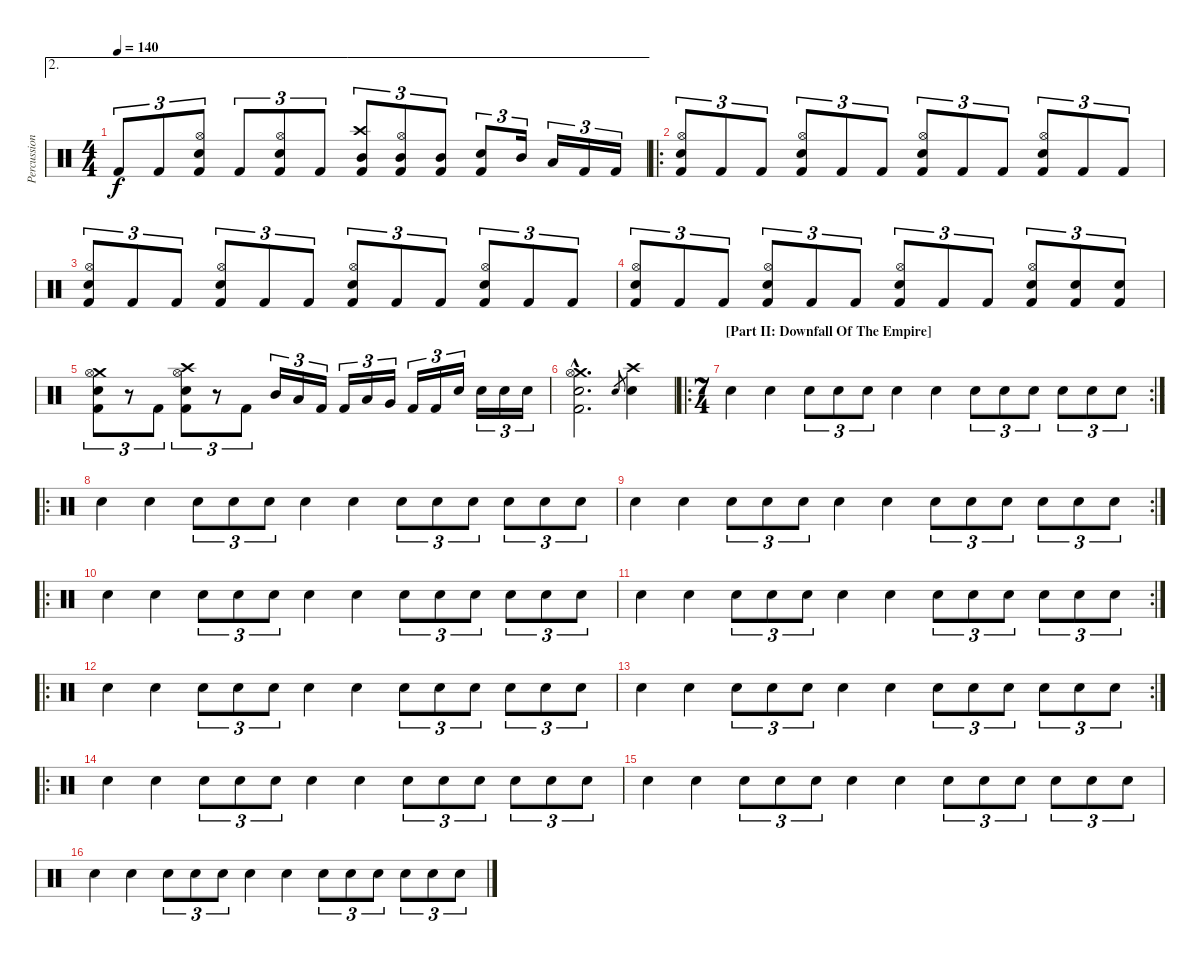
\track ("Percussion" "Percussion") {instrument percussion}
\staff {score}
\articulation defaults
\ae 2
\ts (4 4)
\tempo 140
\clef neutral
\ks c "Kick (hit) 2".8{tu (3 2) dy f} "Kick (hit) 2".8{tu (3 2)}
("Hi-Hat (open)" "Electric Snare (hit)" "Kick (hit) 2").8{tu (3 2)} "Kick (hit) 2".8{tu (3 2)} ("Hi-Hat (open)" "Electric Snare (hit)" "Kick (hit) 2").8{tu (3 2)} "Kick (hit) 2".8{tu (3 2)} ("Crash high (hit)" "Mid Tom (hit)" "Kick (hit) 2").8{tu (3 2)} ("Hi-Hat (open)" "Mid Tom (hit)" "Kick (hit) 2").8{tu (3 2)} ("Mid Tom (hit)" "Kick (hit) 2").8{tu (3 2)} ("Electric Snare (hit)" "Kick (hit) 2").8{tu (3 2)} "Mid Tom (hit)".16{tu (3 2)} "Low Tom (hit)".16{tu (3 2)} "Kick (hit) 2".16{tu (3 2)} "Kick (hit) 2".16{tu (3 2)} |
\ro
("Hi-Hat (open)" "Electric Snare (hit)" "Kick (hit) 2").8{tu (3 2)} "Kick (hit) 2".8{tu (3 2)} "Kick (hit) 2".8{tu (3 2)} ("Hi-Hat (open)" "Electric Snare (hit)" "Kick (hit) 2").8{tu (3 2)} "Kick (hit) 2".8{tu (3 2)} "Kick (hit) 2".8{tu (3 2)} ("Hi-Hat (open)" "Electric Snare (hit)" "Kick (hit) 2").8{tu (3 2)} "Kick (hit) 2".8{tu (3 2)} "Kick (hit) 2".8{tu (3 2)} ("Hi-Hat (open)" "Electric Snare (hit)" "Kick (hit) 2").8{tu (3 2)} "Kick (hit) 2".8{tu (3 2)} "Kick (hit) 2".8{tu (3 2)} |
("Hi-Hat (open)" "Electric Snare (hit)" "Kick (hit) 2").8{tu (3 2)} "Kick (hit) 2".8{tu (3 2)} "Kick (hit) 2".8{tu (3 2)} ("Hi-Hat (open)" "Electric Snare (hit)" "Kick (hit) 2").8{tu (3 2)} "Kick (hit) 2".8{tu (3 2)} "Kick (hit) 2".8{tu (3 2)} ("Hi-Hat (open)" "Electric Snare (hit)" "Kick (hit) 2").8{tu (3 2)} "Kick (hit) 2".8{tu (3 2)} "Kick (hit) 2".8{tu (3 2)} ("Hi-Hat (open)" "Electric Snare (hit)" "Kick (hit) 2").8{tu (3 2)} "Kick (hit) 2".8{tu (3 2)} "Kick (hit) 2".8{tu (3 2)} |
("Hi-Hat (open)" "Electric Snare (hit)" "Kick (hit) 2").8{tu (3 2)} "Kick (hit) 2".8{tu (3 2)} "Kick (hit) 2".8{tu (3 2)} ("Hi-Hat (open)" "Electric Snare (hit)" "Kick (hit) 2").8{tu (3 2)} "Kick (hit) 2".8{tu (3 2)} "Kick (hit) 2".8{tu (3 2)} ("Hi-Hat (open)" "Electric Snare (hit)" "Kick (hit) 2").8{tu (3 2)} "Kick (hit) 2".8{tu (3 2)} "Kick (hit) 2".8{tu (3 2)} ("Hi-Hat (open)" "Electric Snare (hit)" "Kick (hit) 2").8{tu (3 2)} ("Electric Snare (hit)" "Kick (hit) 2").8{tu (3 2)} ("Electric Snare (hit)" "Kick (hit) 2").8{tu (3 2)} |
("Crash medium (hit)" "Hi-Hat (open)" "Electric Snare (hit)" "Kick (hit) 2").8{tu (3 2)} r.8{tu (3 2)} "Kick (hit) 2".8{tu (3 2)} ("Crash high (hit)" "Hi-Hat (open)" "Electric Snare (hit)" "Kick (hit) 2").8{tu (3 2)} r.8{tu (3 2)} "Kick (hit) 2".8{tu (3 2)} "Mid Tom (hit)".16{tu (3 2)} "Low Tom (hit)".16{tu (3 2)} "Kick (hit) 2".16{tu (3 2)} "Kick (hit) 2".16{tu (3 2)} "Low Tom (hit)".16{tu (3 2)} "Very Low Tom (hit)".16{tu (3 2)} "Kick (hit) 2".16{tu (3 2)} "Kick (hit) 2".16{tu (3 2)} "Electric Snare (hit)".16{tu (3 2)} "Electric Snare (hit)".16{tu (3 2)} "Electric Snare (hit)".16{tu (3 2)} "Electric Snare (hit)".16{tu (3 2)} |
("Crash medium (hit)"{hac} "Hi-Hat (open)"{hac} "Electric Snare (hit)"{hac} "Kick (hit) 2"{hac}).2{d} "Electric Snare (hit)".8{gr} ("Crash high (hit)" "Electric Snare (hit)").4 |
\ro
\rc 2
\ts (7 4)
\section ("" "[Part II: Downfall Of The Empire]")
"Electric Snare (hit)".4 "Electric Snare (hit)".4 "Electric Snare (hit)".8{tu (3 2)} "Electric Snare (hit)".8{tu (3 2)} "Electric Snare (hit)".8{tu (3 2)} "Electric Snare (hit)".4 "Electric Snare (hit)".4 "Electric Snare (hit)".8{tu (3 2)} "Electric Snare (hit)".8{tu (3 2)} "Electric Snare (hit)".8{tu (3 2)} "Electric Snare (hit)".8{tu (3 2)} "Electric Snare (hit)".8{tu (3 2)} "Electric Snare (hit)".8{tu (3 2)} |
\ro "Electric Snare (hit)".4 "Electric Snare (hit)".4 "Electric Snare (hit)".8{tu (3 2)} "Electric Snare (hit)".8{tu (3 2)} "Electric Snare (hit)".8{tu (3 2)} "Electric Snare (hit)".4 "Electric Snare (hit)".4 "Electric Snare (hit)".8{tu (3 2)} "Electric Snare (hit)".8{tu (3 2)} "Electric Snare (hit)".8{tu (3 2)} "Electric Snare (hit)".8{tu (3 2)} "Electric Snare (hit)".8{tu (3 2)} "Electric Snare (hit)".8{tu (3 2)}
|
\rc 2 "Electric Snare (hit)".4 "Electric Snare (hit)".4 "Electric Snare (hit)".8{tu (3 2)} "Electric Snare (hit)".8{tu (3 2)} "Electric Snare (hit)".8{tu (3 2)} "Electric Snare (hit)".4 "Electric Snare (hit)".4 "Electric Snare (hit)".8{tu (3 2)} "Electric Snare (hit)".8{tu (3 2)} "Electric Snare (hit)".8{tu (3 2)} "Electric Snare (hit)".8{tu (3 2)} "Electric Snare (hit)".8{tu (3 2)} "Electric Snare (hit)".8{tu (3 2)}
|
\ro "Electric Snare (hit)".4 "Electric Snare (hit)".4 "Electric Snare (hit)".8{tu (3 2)} "Electric Snare (hit)".8{tu (3 2)} "Electric Snare (hit)".8{tu (3 2)} "Electric Snare (hit)".4 "Electric Snare (hit)".4 "Electric Snare (hit)".8{tu (3 2)} "Electric Snare (hit)".8{tu (3 2)} "Electric Snare (hit)".8{tu (3 2)} "Electric Snare (hit)".8{tu (3 2)} "Electric Snare (hit)".8{tu (3 2)} "Electric Snare (hit)".8{tu (3 2)}
|
\rc 2 "Electric Snare (hit)".4 "Electric Snare (hit)".4 "Electric Snare (hit)".8{tu (3 2)} "Electric Snare (hit)".8{tu (3 2)} "Electric Snare (hit)".8{tu (3 2)} "Electric Snare (hit)".4 "Electric Snare (hit)".4 "Electric Snare (hit)".8{tu (3 2)} "Electric Snare (hit)".8{tu (3 2)} "Electric Snare (hit)".8{tu (3 2)} "Electric Snare (hit)".8{tu (3 2)} "Electric Snare (hit)".8{tu (3 2)} "Electric Snare (hit)".8{tu (3 2)}
|
\ro "Electric Snare (hit)".4 "Electric Snare (hit)".4 "Electric Snare (hit)".8{tu (3 2)} "Electric Snare (hit)".8{tu (3 2)} "Electric Snare (hit)".8{tu (3 2)} "Electric Snare (hit)".4 "Electric Snare (hit)".4 "Electric Snare (hit)".8{tu (3 2)} "Electric Snare (hit)".8{tu (3 2)} "Electric Snare (hit)".8{tu (3 2)} "Electric Snare (hit)".8{tu (3 2)} "Electric Snare (hit)".8{tu (3 2)} "Electric Snare (hit)".8{tu (3 2)}
|
\rc 2 "Electric Snare (hit)".4 "Electric Snare (hit)".4 "Electric Snare (hit)".8{tu (3 2)} "Electric Snare (hit)".8{tu (3 2)} "Electric Snare (hit)".8{tu (3 2)} "Electric Snare (hit)".4 "Electric Snare (hit)".4 "Electric Snare (hit)".8{tu (3 2)} "Electric Snare (hit)".8{tu (3 2)} "Electric Snare (hit)".8{tu (3 2)} "Electric Snare (hit)".8{tu (3 2)} "Electric Snare (hit)".8{tu (3 2)} "Electric Snare (hit)".8{tu (3 2)}
|
\ro "Electric Snare (hit)".4 "Electric Snare (hit)".4 "Electric Snare (hit)".8{tu (3 2)} "Electric Snare (hit)".8{tu (3 2)} "Electric Snare (hit)".8{tu (3 2)} "Electric Snare (hit)".4 "Electric Snare (hit)".4 "Electric Snare (hit)".8{tu (3 2)} "Electric Snare (hit)".8{tu (3 2)} "Electric Snare (hit)".8{tu (3 2)} "Electric Snare (hit)".8{tu (3 2)} "Electric Snare (hit)".8{tu (3 2)} "Electric Snare (hit)".8{tu (3 2)}
|
"Electric Snare (hit)".4 "Electric Snare (hit)".4 "Electric Snare (hit)".8{tu (3 2)} "Electric Snare (hit)".8{tu (3 2)} "Electric Snare (hit)".8{tu (3 2)} "Electric Snare (hit)".4 "Electric Snare (hit)".4 "Electric Snare (hit)".8{tu (3 2)} "Electric Snare (hit)".8{tu (3 2)} "Electric Snare (hit)".8{tu (3 2)} "Electric Snare (hit)".8{tu (3 2)} "Electric Snare (hit)".8{tu (3 2)} "Electric Snare (hit)".8{tu (3 2)} |
"Electric Snare (hit)".4 "Electric Snare (hit)".4 "Electric Snare (hit)".8{tu (3 2)} "Electric Snare (hit)".8{tu (3 2)} "Electric Snare (hit)".8{tu (3 2)} "Electric Snare (hit)".4 "Electric Snare (hit)".4 "Electric Snare (hit)".8{tu (3 2)} "Electric Snare (hit)".8{tu (3 2)} "Electric Snare (hit)".8{tu (3 2)} "Electric Snare (hit)".8{tu (3 2)} "Electric Snare (hit)".8{tu (3 2)} "Electric Snare (hit)".8{tu (3 2)}
